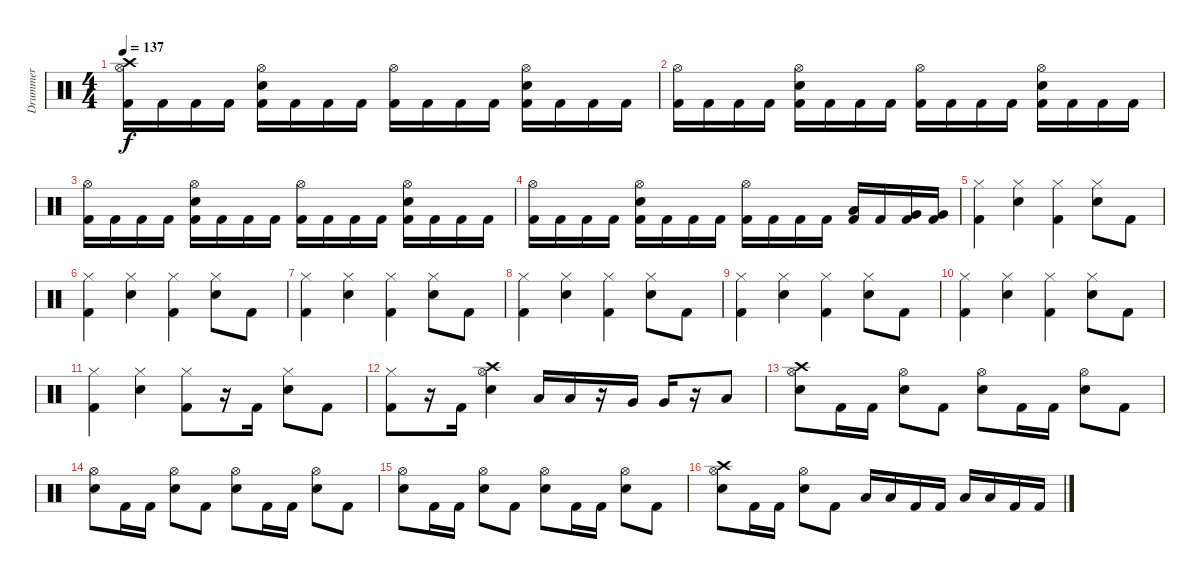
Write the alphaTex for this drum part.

\track ("Drummer" "Drummer") {instrument percussion}
\staff {score}
\articulation defaults
\ts (4 4)
\tempo 137
\clef neutral
\ks c
("Crash high (hit)" "Hi-Hat (open)" "Kick (hit) 2").16{dy f} "Kick (hit) 2".16 "Kick (hit) 2".16 "Kick (hit) 2".16 ("Electric Snare (hit)" "Hi-Hat (open)" "Kick (hit) 2").16 "Kick (hit) 2".16 "Kick (hit) 2".16 "Kick (hit) 2".16 ("Hi-Hat (open)" "Kick (hit) 2").16 "Kick (hit) 2".16 "Kick (hit) 2".16 "Kick (hit) 2".16 ("Electric Snare (hit)" "Hi-Hat (open)" "Kick (hit) 2").16 "Kick (hit) 2".16 "Kick (hit) 2".16 "Kick (hit) 2".16 |
("Hi-Hat (open)" "Kick (hit) 2").16 "Kick (hit) 2".16 "Kick (hit) 2".16 "Kick (hit) 2".16 ("Electric Snare (hit)" "Hi-Hat (open)" "Kick (hit) 2").16 "Kick (hit) 2".16 "Kick (hit) 2".16 "Kick (hit) 2".16 ("Hi-Hat (open)" "Kick (hit) 2").16 "Kick (hit) 2".16 "Kick (hit) 2".16 "Kick (hit) 2".16 ("Electric Snare (hit)" "Hi-Hat (open)" "Kick (hit) 2").16 "Kick (hit) 2".16 "Kick (hit) 2".16 "Kick (hit) 2".16 |
("Hi-Hat (open)" "Kick (hit) 2").16 "Kick (hit) 2".16 "Kick (hit) 2".16 "Kick (hit) 2".16 ("Electric Snare (hit)" "Hi-Hat (open)" "Kick (hit) 2").16 "Kick (hit) 2".16 "Kick (hit) 2".16 "Kick (hit) 2".16 ("Hi-Hat (open)" "Kick (hit) 2").16 "Kick (hit) 2".16 "Kick (hit) 2".16 "Kick (hit) 2".16 ("Electric Snare (hit)" "Hi-Hat (open)" "Kick (hit) 2").16 "Kick (hit) 2".16 "Kick (hit) 2".16 "Kick (hit) 2".16 |
("Hi-Hat (open)" "Kick (hit) 2").16 "Kick (hit) 2".16 "Kick (hit) 2".16 "Kick (hit) 2".16 ("Electric Snare (hit)" "Hi-Hat (open)" "Kick (hit) 2").16 "Kick (hit) 2".16 "Kick (hit) 2".16 "Kick (hit) 2".16 ("Hi-Hat (open)" "Kick (hit) 2").16 "Kick (hit) 2".16 "Kick (hit) 2".16 "Kick (hit) 2".16 ("Low Tom (hit)" "Kick (hit) 2").16 "Kick (hit) 2".16 ("Very Low Tom (hit)" "Kick (hit) 2").16 ("Very Low Tom (hit)" "Kick (hit) 2").16 |
("Hi-Hat (closed)" "Kick (hit) 2").4 ("Hi-Hat (closed)" "Electric Snare (hit)").4 ("Hi-Hat (closed)" "Kick (hit) 2").4 ("Hi-Hat (closed)" "Electric Snare (hit)").8 "Kick (hit) 2".8 |
("Hi-Hat (closed)" "Kick (hit) 2").4 ("Hi-Hat (closed)" "Electric Snare (hit)").4 ("Hi-Hat (closed)" "Kick (hit) 2").4 ("Hi-Hat (closed)" "Electric Snare (hit)").8 "Kick (hit) 2".8 |
("Hi-Hat (closed)" "Kick (hit) 2").4 ("Hi-Hat (closed)" "Electric Snare (hit)").4 ("Hi-Hat (closed)" "Kick (hit) 2").4 ("Hi-Hat (closed)" "Electric Snare (hit)").8 "Kick (hit) 2".8 |
("Hi-Hat (closed)" "Kick (hit) 2").4 ("Hi-Hat (closed)" "Electric Snare (hit)").4 ("Hi-Hat (closed)" "Kick (hit) 2").4 ("Hi-Hat (closed)" "Electric Snare (hit)").8 "Kick (hit) 2".8 |
("Hi-Hat (closed)" "Kick (hit) 2").4 ("Hi-Hat (closed)" "Electric Snare (hit)").4 ("Hi-Hat (closed)" "Kick (hit) 2").4 ("Hi-Hat (closed)" "Electric Snare (hit)").8 "Kick (hit) 2".8 |
("Hi-Hat (closed)" "Kick (hit) 2").4 ("Hi-Hat (closed)" "Electric Snare (hit)").4 ("Hi-Hat (closed)" "Kick (hit) 2").4 ("Hi-Hat (closed)" "Electric Snare (hit)").8 "Kick (hit) 2".8 |
("Hi-Hat (closed)" "Kick (hit) 2").4 ("Hi-Hat (closed)" "Electric Snare (hit)").4 ("Hi-Hat (closed)" "Kick (hit) 2").8 r.16 "Kick (hit) 2".16 ("Hi-Hat (closed)" "Electric Snare (hit)").8 "Kick (hit) 2".8 |
("Hi-Hat (closed)" "Kick (hit) 2").8 r.16 "Kick (hit) 2".16 ("Hi-Hat (open)" "Crash high (hit)" "Electric Snare (hit)").4 "Low Tom (hit)".16 "Low Tom (hit)".16 r.16 "Very Low Tom (hit)".16 "Very Low Tom (hit)".16 r.16 "Low Floor Tom (hit)".8 |
("Crash high (hit)" "Hi-Hat (open)" "Electric Snare (hit)").8 "Kick (hit) 2".16 "Kick (hit) 2".16 ("Hi-Hat (open)" "Electric Snare (hit)").8 "Kick (hit) 2".8 ("Hi-Hat (open)" "Electric Snare (hit)").8 "Kick (hit) 2".16 "Kick (hit) 2".16 ("Hi-Hat (open)" "Electric Snare (hit)").8 "Kick (hit) 2".8 |
("Hi-Hat (open)" "Electric Snare (hit)").8 "Kick (hit) 2".16 "Kick (hit) 2".16 ("Hi-Hat (open)" "Electric Snare (hit)").8 "Kick (hit) 2".8 ("Hi-Hat (open)" "Electric Snare (hit)").8 "Kick (hit) 2".16 "Kick (hit) 2".16 ("Hi-Hat (open)" "Electric Snare (hit)").8 "Kick (hit) 2".8 |
("Hi-Hat (open)" "Electric Snare (hit)").8 "Kick (hit) 2".16 "Kick (hit) 2".16 ("Hi-Hat (open)" "Electric Snare (hit)").8 "Kick (hit) 2".8 ("Hi-Hat (open)" "Electric Snare (hit)").8 "Kick (hit) 2".16 "Kick (hit) 2".16 ("Hi-Hat (open)" "Electric Snare (hit)").8 "Kick (hit) 2".8 |
("Crash high (hit)" "Hi-Hat (open)" "Electric Snare (hit)").8 "Kick (hit) 2".16 "Kick (hit) 2".16 ("Hi-Hat (open)" "Electric Snare (hit)").8 "Kick (hit) 2".8 "Low Tom (hit)".16 "Low Tom (hit)".16 "Kick (hit) 2".16 "Kick (hit) 2".16 "Low Floor Tom (hit)".16 "Low Floor Tom (hit)".16 "Kick (hit) 2".16 "Kick (hit) 2".16
